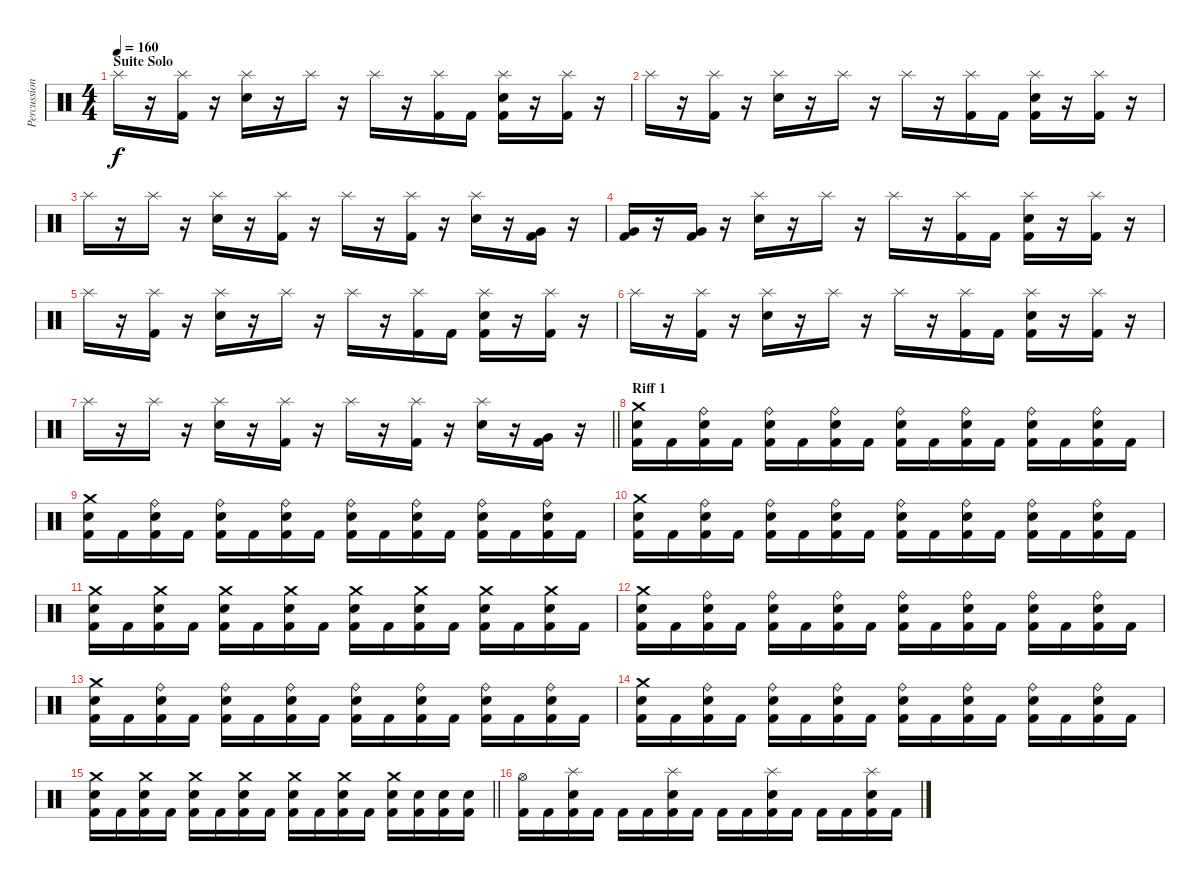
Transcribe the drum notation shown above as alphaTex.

\track ("Percussions" "Percussion") {instrument percussion bank 1}
\staff {score}
\articulation defaults
\ts (4 4)
\section ("" "Suite Solo")
\tempo 160
\clef neutral
\ks c "Splash (hit)".16{dy f}
r.16 ("Kick (hit) 2" "Splash (hit)").16 r.16 ("Electric Snare (hit)" "Splash (hit)").16 r.16 "Splash (hit)".16 r.16 "Splash (hit)".16 r.16 ("Kick (hit) 2" "Splash (hit)").16 "Kick (hit) 2".16 ("Kick (hit) 2" "Electric Snare (hit)" "Splash (hit)").16 r.16 ("Kick (hit) 2" "Splash (hit)").16 r.16 |
"Splash (hit)".16 r.16 ("Kick (hit) 2" "Splash (hit)").16 r.16 ("Electric Snare (hit)" "Splash (hit)").16 r.16 "Splash (hit)".16 r.16 "Splash (hit)".16 r.16 ("Kick (hit) 2" "Splash (hit)").16 "Kick (hit) 2".16 ("Kick (hit) 2" "Electric Snare (hit)" "Splash (hit)").16 r.16 ("Kick (hit) 2" "Splash (hit)").16 r.16 |
"Splash (hit)".16 r.16 "Splash (hit)".16 r.16 ("Electric Snare (hit)" "Splash (hit)").16 r.16 ("Kick (hit) 2" "Splash (hit)").16 r.16 "Splash (hit)".16 r.16 ("Kick (hit) 2" "Splash (hit)").16 r.16 ("Electric Snare (hit)" "Splash (hit)").16 r.16 ("Kick (hit) 2" "Very Low Tom (hit)").16 r.16 |
("Kick (hit) 2" "Very Low Tom (hit)").16 r.16 ("Kick (hit) 2" "Very Low Tom (hit)").16 r.16 ("Electric Snare (hit)" "Splash (hit)").16 r.16 "Splash (hit)".16 r.16 "Splash (hit)".16 r.16 ("Kick (hit) 2" "Splash (hit)").16 "Kick (hit) 2".16 ("Kick (hit) 2" "Electric Snare (hit)" "Splash (hit)").16 r.16 ("Kick (hit) 2" "Splash (hit)").16 r.16 |
"Splash (hit)".16 r.16 ("Kick (hit) 2" "Splash (hit)").16 r.16 ("Electric Snare (hit)" "Splash (hit)").16 r.16 "Splash (hit)".16 r.16 "Splash (hit)".16 r.16 ("Kick (hit) 2" "Splash (hit)").16 "Kick (hit) 2".16 ("Kick (hit) 2" "Electric Snare (hit)" "Splash (hit)").16 r.16 ("Kick (hit) 2" "Splash (hit)").16 r.16 |
"Splash (hit)".16 r.16 ("Kick (hit) 2" "Splash (hit)").16 r.16 ("Electric Snare (hit)" "Splash (hit)").16 r.16 "Splash (hit)".16 r.16 "Splash (hit)".16 r.16 ("Kick (hit) 2" "Splash (hit)").16 "Kick (hit) 2".16 ("Kick (hit) 2" "Electric Snare (hit)" "Splash (hit)").16 r.16 ("Kick (hit) 2" "Splash (hit)").16 r.16 |
\barLineRight lightlight "Splash (hit)".16
r.16 "Splash (hit)".16 r.16 ("Electric Snare (hit)" "Splash (hit)").16 r.16 ("Kick (hit) 2" "Splash (hit)").16 r.16 "Splash (hit)".16 r.16 ("Kick (hit) 2" "Splash (hit)").16 r.16 ("Electric Snare (hit)" "Splash (hit)").16 r.16 ("Kick (hit) 2" "Very Low Tom (hit)").16 r.16 |
\section ("" "Riff 1")
("Kick (hit) 2" "Electric Snare (hit)" "Crash medium (hit)").16 "Kick (hit) 2".16 ("Kick (hit) 2" "Electric Snare (hit)" "Ride (bell)").16 "Kick (hit) 2".16 ("Kick (hit) 2" "Electric Snare (hit)" "Ride (bell)").16 "Kick (hit) 2".16 ("Kick (hit) 2" "Electric Snare (hit)" "Ride (bell)").16 "Kick (hit) 2".16 ("Kick (hit) 2" "Electric Snare (hit)" "Ride (bell)").16 "Kick (hit) 2".16 ("Kick (hit) 2" "Electric Snare (hit)" "Ride (bell)").16 "Kick (hit) 2".16 ("Kick (hit) 2" "Electric Snare (hit)" "Ride (bell)").16 "Kick (hit) 2".16 ("Kick (hit) 2" "Electric Snare (hit)" "Ride (bell)").16 "Kick (hit) 2".16 |
("Kick (hit) 2" "Electric Snare (hit)" "Crash medium (hit)").16 "Kick (hit) 2".16 ("Kick (hit) 2" "Electric Snare (hit)" "Ride (bell)").16 "Kick (hit) 2".16 ("Kick (hit) 2" "Electric Snare (hit)" "Ride (bell)").16 "Kick (hit) 2".16 ("Kick (hit) 2" "Electric Snare (hit)" "Ride (bell)").16 "Kick (hit) 2".16 ("Kick (hit) 2" "Electric Snare (hit)" "Ride (bell)").16 "Kick (hit) 2".16 ("Kick (hit) 2" "Electric Snare (hit)" "Ride (bell)").16 "Kick (hit) 2".16 ("Kick (hit) 2" "Electric Snare (hit)" "Ride (bell)").16 "Kick (hit) 2".16 ("Kick (hit) 2" "Electric Snare (hit)" "Ride (bell)").16 "Kick (hit) 2".16 |
("Kick (hit) 2" "Electric Snare (hit)" "Crash medium (hit)").16 "Kick (hit) 2".16 ("Kick (hit) 2" "Electric Snare (hit)" "Ride (bell)").16 "Kick (hit) 2".16 ("Kick (hit) 2" "Electric Snare (hit)" "Ride (bell)").16 "Kick (hit) 2".16 ("Kick (hit) 2" "Electric Snare (hit)" "Ride (bell)").16 "Kick (hit) 2".16 ("Kick (hit) 2" "Electric Snare (hit)" "Ride (bell)").16 "Kick (hit) 2".16 ("Kick (hit) 2" "Electric Snare (hit)" "Ride (bell)").16 "Kick (hit) 2".16 ("Kick (hit) 2" "Electric Snare (hit)" "Ride (bell)").16 "Kick (hit) 2".16 ("Kick (hit) 2" "Electric Snare (hit)" "Ride (bell)").16 "Kick (hit) 2".16 |
("Kick (hit) 2" "Electric Snare (hit)" "Crash medium (hit)").16 "Kick (hit) 2".16 ("Kick (hit) 2" "Electric Snare (hit)" "Crash medium (hit)").16 "Kick (hit) 2".16 ("Kick (hit) 2" "Electric Snare (hit)" "Crash medium (hit)").16 "Kick (hit) 2".16 ("Kick (hit) 2" "Electric Snare (hit)" "Crash medium (hit)").16 "Kick (hit) 2".16 ("Kick (hit) 2" "Electric Snare (hit)" "Crash medium (hit)").16 "Kick (hit) 2".16 ("Kick (hit) 2" "Electric Snare (hit)" "Crash medium (hit)").16 "Kick (hit) 2".16 ("Kick (hit) 2" "Electric Snare (hit)" "Crash medium (hit)").16 "Kick (hit) 2".16 ("Kick (hit) 2" "Electric Snare (hit)" "Crash medium (hit)").16 "Kick (hit) 2".16 |
("Kick (hit) 2" "Electric Snare (hit)" "Crash medium (hit)").16 "Kick (hit) 2".16 ("Kick (hit) 2" "Electric Snare (hit)" "Ride (bell)").16 "Kick (hit) 2".16 ("Kick (hit) 2" "Electric Snare (hit)" "Ride (bell)").16 "Kick (hit) 2".16 ("Kick (hit) 2" "Electric Snare (hit)" "Ride (bell)").16 "Kick (hit) 2".16 ("Kick (hit) 2" "Electric Snare (hit)" "Ride (bell)").16 "Kick (hit) 2".16 ("Kick (hit) 2" "Electric Snare (hit)" "Ride (bell)").16 "Kick (hit) 2".16 ("Kick (hit) 2" "Electric Snare (hit)" "Ride (bell)").16 "Kick (hit) 2".16 ("Kick (hit) 2" "Electric Snare (hit)" "Ride (bell)").16 "Kick (hit) 2".16 |
("Kick (hit) 2" "Electric Snare (hit)" "Crash medium (hit)").16 "Kick (hit) 2".16 ("Kick (hit) 2" "Electric Snare (hit)" "Ride (bell)").16 "Kick (hit) 2".16 ("Kick (hit) 2" "Electric Snare (hit)" "Ride (bell)").16 "Kick (hit) 2".16 ("Kick (hit) 2" "Electric Snare (hit)" "Ride (bell)").16 "Kick (hit) 2".16 ("Kick (hit) 2" "Electric Snare (hit)" "Ride (bell)").16 "Kick (hit) 2".16 ("Kick (hit) 2" "Electric Snare (hit)" "Ride (bell)").16 "Kick (hit) 2".16 ("Kick (hit) 2" "Electric Snare (hit)" "Ride (bell)").16 "Kick (hit) 2".16 ("Kick (hit) 2" "Electric Snare (hit)" "Ride (bell)").16 "Kick (hit) 2".16 |
("Kick (hit) 2" "Electric Snare (hit)" "Crash medium (hit)").16 "Kick (hit) 2".16 ("Kick (hit) 2" "Electric Snare (hit)" "Ride (bell)").16 "Kick (hit) 2".16 ("Kick (hit) 2" "Electric Snare (hit)" "Ride (bell)").16 "Kick (hit) 2".16 ("Kick (hit) 2" "Electric Snare (hit)" "Ride (bell)").16 "Kick (hit) 2".16 ("Kick (hit) 2" "Electric Snare (hit)" "Ride (bell)").16 "Kick (hit) 2".16 ("Kick (hit) 2" "Electric Snare (hit)" "Ride (bell)").16 "Kick (hit) 2".16 ("Kick (hit) 2" "Electric Snare (hit)" "Ride (bell)").16 "Kick (hit) 2".16 ("Kick (hit) 2" "Electric Snare (hit)" "Ride (bell)").16 "Kick (hit) 2".16 |
\barLineRight lightlight
("Kick (hit) 2" "Electric Snare (hit)" "Crash medium (hit)").16 "Kick (hit) 2".16 ("Kick (hit) 2" "Electric Snare (hit)" "Crash medium (hit)").16 "Kick (hit) 2".16 ("Kick (hit) 2" "Electric Snare (hit)" "Crash medium (hit)").16 "Kick (hit) 2".16 ("Kick (hit) 2" "Electric Snare (hit)" "Crash medium (hit)").16 "Kick (hit) 2".16 ("Kick (hit) 2" "Electric Snare (hit)" "Crash medium (hit)").16 "Kick (hit) 2".16 ("Kick (hit) 2" "Electric Snare (hit)" "Crash medium (hit)").16 "Kick (hit) 2".16 ("Kick (hit) 2" "Electric Snare (hit)" "Crash medium (hit)").16 ("Kick (hit) 2" "Electric Snare (hit)").16 ("Kick (hit) 2" "Electric Snare (hit)").16 ("Kick (hit) 2" "Electric Snare (hit)").16 |
("Kick (hit) 2" "Hi-Hat (open)").16 "Kick (hit) 2".16 ("Kick (hit) 2" "Electric Snare (hit)" "Splash (hit)").16 "Kick (hit) 2".16 "Kick (hit) 2".16 "Kick (hit) 2".16 ("Kick (hit) 2" "Electric Snare (hit)" "Splash (hit)").16 "Kick (hit) 2".16 "Kick (hit) 2".16 "Kick (hit) 2".16 ("Kick (hit) 2" "Electric Snare (hit)" "Splash (hit)").16 "Kick (hit) 2".16 "Kick (hit) 2".16 "Kick (hit) 2".16 ("Kick (hit) 2" "Electric Snare (hit)" "Splash (hit)").16 "Kick (hit) 2".16
